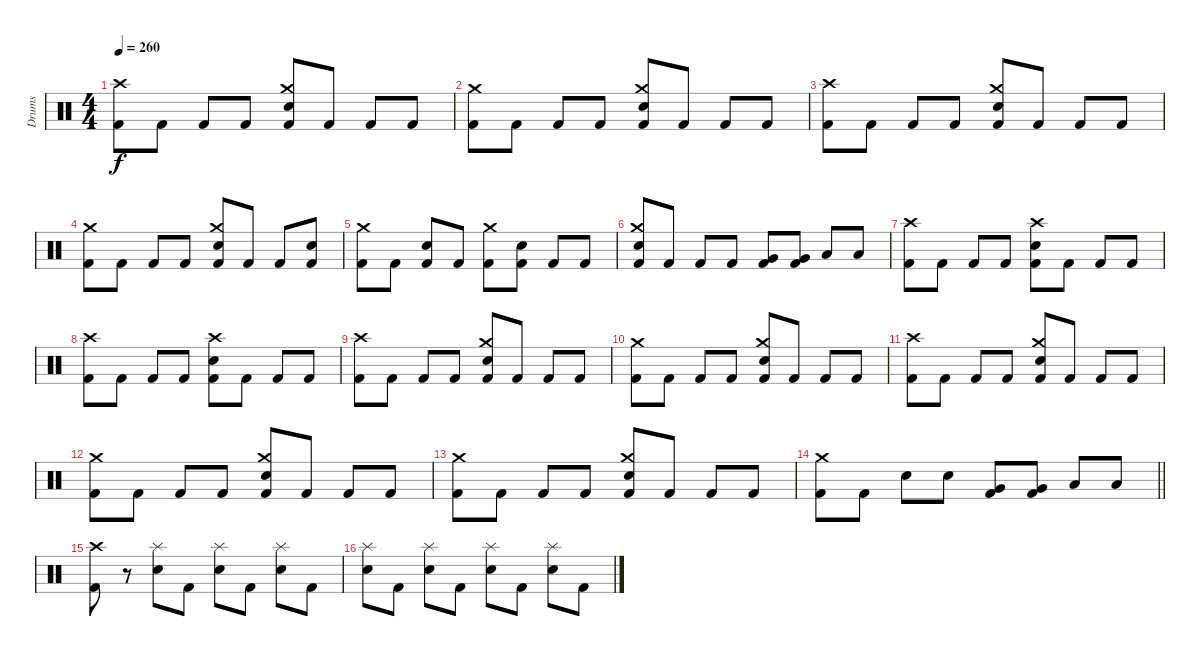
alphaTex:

\track ("Drums" "Drums") {instrument percussion}
\staff {score}
\articulation defaults
\ts (4 4)
\tempo 260
\clef neutral
\ks c
("Crash high (hit)" "Kick (hit) 2").8{dy f} "Kick (hit) 2".8 "Kick (hit) 2".8 "Kick (hit) 2".8 ("Crash medium (hit)" "Electric Snare (hit)" "Kick (hit) 2").8 "Kick (hit) 2".8 "Kick (hit) 2".8 "Kick (hit) 2".8 |
("Crash medium (hit)" "Kick (hit) 2").8 "Kick (hit) 2".8 "Kick (hit) 2".8 "Kick (hit) 2".8 ("Crash medium (hit)" "Electric Snare (hit)" "Kick (hit) 2").8 "Kick (hit) 2".8 "Kick (hit) 2".8 "Kick (hit) 2".8 |
("Crash high (hit)" "Kick (hit) 2").8 "Kick (hit) 2".8 "Kick (hit) 2".8 "Kick (hit) 2".8 ("Crash medium (hit)" "Electric Snare (hit)" "Kick (hit) 2").8 "Kick (hit) 2".8 "Kick (hit) 2".8 "Kick (hit) 2".8 |
("Crash medium (hit)" "Kick (hit) 2").8 "Kick (hit) 2".8 "Kick (hit) 2".8 "Kick (hit) 2".8 ("Crash medium (hit)" "Electric Snare (hit)" "Kick (hit) 2").8 "Kick (hit) 2".8 "Kick (hit) 2".8 ("Electric Snare (hit)" "Kick (hit) 2").8 |
("Crash medium (hit)" "Kick (hit) 2").8 "Kick (hit) 2".8 ("Electric Snare (hit)" "Kick (hit) 2").8 "Kick (hit) 2".8 ("Crash medium (hit)" "Kick (hit) 2").8 ("Electric Snare (hit)" "Kick (hit) 2").8 "Kick (hit) 2".8 "Kick (hit) 2".8 |
("Crash medium (hit)" "Electric Snare (hit)" "Kick (hit) 2").8 "Kick (hit) 2".8 "Kick (hit) 2".8 "Kick (hit) 2".8 ("Very Low Tom (hit)" "Kick (hit) 2").8 ("Very Low Tom (hit)" "Kick (hit) 2").8 "Low Floor Tom (hit)".8 "Low Floor Tom (hit)".8 |
("Crash high (hit)" "Kick (hit) 2").8 "Kick (hit) 2".8 "Kick (hit) 2".8 "Kick (hit) 2".8 ("Crash high (hit)" "Electric Snare (hit)" "Kick (hit) 2").8 "Kick (hit) 2".8 "Kick (hit) 2".8 "Kick (hit) 2".8 |
("Crash high (hit)" "Kick (hit) 2").8 "Kick (hit) 2".8 "Kick (hit) 2".8 "Kick (hit) 2".8 ("Crash high (hit)" "Electric Snare (hit)" "Kick (hit) 2").8 "Kick (hit) 2".8 "Kick (hit) 2".8 "Kick (hit) 2".8 |
("Crash high (hit)" "Kick (hit) 2").8 "Kick (hit) 2".8 "Kick (hit) 2".8 "Kick (hit) 2".8 ("Crash medium (hit)" "Electric Snare (hit)" "Kick (hit) 2").8 "Kick (hit) 2".8 "Kick (hit) 2".8 "Kick (hit) 2".8 |
("Crash medium (hit)" "Kick (hit) 2").8 "Kick (hit) 2".8 "Kick (hit) 2".8 "Kick (hit) 2".8 ("Crash medium (hit)" "Electric Snare (hit)" "Kick (hit) 2").8 "Kick (hit) 2".8 "Kick (hit) 2".8 "Kick (hit) 2".8 |
("Crash high (hit)" "Kick (hit) 2").8 "Kick (hit) 2".8 "Kick (hit) 2".8 "Kick (hit) 2".8 ("Crash medium (hit)" "Electric Snare (hit)" "Kick (hit) 2").8 "Kick (hit) 2".8 "Kick (hit) 2".8 "Kick (hit) 2".8 |
("Crash medium (hit)" "Kick (hit) 2").8 "Kick (hit) 2".8 "Kick (hit) 2".8 "Kick (hit) 2".8 ("Crash medium (hit)" "Electric Snare (hit)" "Kick (hit) 2").8 "Kick (hit) 2".8 "Kick (hit) 2".8 "Kick (hit) 2".8 |
("Crash medium (hit)" "Kick (hit) 2").8 "Kick (hit) 2".8 "Kick (hit) 2".8 "Kick (hit) 2".8 ("Crash medium (hit)" "Electric Snare (hit)" "Kick (hit) 2").8 "Kick (hit) 2".8 "Kick (hit) 2".8 "Kick (hit) 2".8 |
\barLineRight lightlight
("Crash medium (hit)" "Kick (hit) 2").8 "Kick (hit) 2".8 "Electric Snare (hit)".8 "Electric Snare (hit)".8 ("Very Low Tom (hit)" "Kick (hit) 2").8 ("Very Low Tom (hit)" "Kick (hit) 2").8 "Low Floor Tom (hit)".8 "Low Floor Tom (hit)".8 |
("Crash high (hit)" "Kick (hit) 2").8 r.8 ("Splash (hit)" "Electric Snare (hit)").8 "Kick (hit) 2".8 ("Splash (hit)" "Electric Snare (hit)").8 "Kick (hit) 2".8 ("Splash (hit)" "Electric Snare (hit)").8 "Kick (hit) 2".8 |
("Splash (hit)" "Electric Snare (hit)").8 "Kick (hit) 2".8 ("Splash (hit)" "Electric Snare (hit)").8 "Kick (hit) 2".8 ("Splash (hit)" "Electric Snare (hit)").8 "Kick (hit) 2".8 ("Splash (hit)" "Electric Snare (hit)").8 "Kick (hit) 2".8
